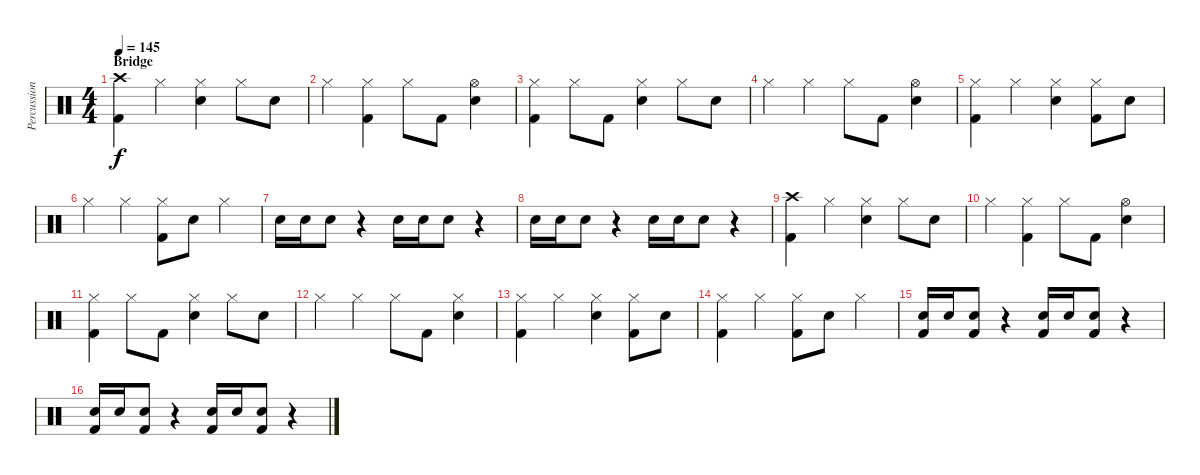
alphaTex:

\track ("Percussion" "Percussion") {instrument percussion}
\staff {score}
\articulation defaults
\ts (4 4)
\section ("" "Bridge")
\tempo 145
\clef neutral
\ks c
("Kick (hit) 2" "Crash high (hit)").4{dy f} "Hi-Hat (closed)".4 ("Electric Snare (hit)" "Hi-Hat (closed)").4 "Hi-Hat (closed)".8 "Electric Snare (hit)".8 |
"Hi-Hat (closed)".4 ("Kick (hit) 2" "Hi-Hat (closed)").4 "Hi-Hat (closed)".8 "Kick (hit) 2".8 ("Electric Snare (hit)" "Hi-Hat (open)").4 |
("Kick (hit) 2" "Hi-Hat (closed)").4 "Hi-Hat (closed)".8 "Kick (hit) 2".8 ("Electric Snare (hit)" "Hi-Hat (closed)").4 "Hi-Hat (closed)".8 "Electric Snare (hit)".8 |
"Hi-Hat (closed)".4 "Hi-Hat (closed)".4 "Hi-Hat (closed)".8 "Kick (hit) 2".8 ("Electric Snare (hit)" "Hi-Hat (open)").4 |
("Kick (hit) 2" "Hi-Hat (closed)").4 "Hi-Hat (closed)".4 ("Electric Snare (hit)" "Hi-Hat (closed)").4 ("Kick (hit) 2" "Hi-Hat (closed)").8 "Electric Snare (hit)".8 |
"Hi-Hat (closed)".4 "Hi-Hat (closed)".4 ("Kick (hit) 2" "Hi-Hat (closed)").8 "Electric Snare (hit)".8 "Hi-Hat (closed)".4 |
"Electric Snare (hit)".16 "Electric Snare (hit)".16 "Electric Snare (hit)".8 r.4 "Electric Snare (hit)".16 "Electric Snare (hit)".16 "Electric Snare (hit)".8 r.4 |
"Electric Snare (hit)".16 "Electric Snare (hit)".16 "Electric Snare (hit)".8 r.4 "Electric Snare (hit)".16 "Electric Snare (hit)".16 "Electric Snare (hit)".8 r.4 |
("Kick (hit) 2" "Crash high (hit)").4 "Hi-Hat (closed)".4 ("Electric Snare (hit)" "Hi-Hat (closed)").4 "Hi-Hat (closed)".8 "Electric Snare (hit)".8 |
"Hi-Hat (closed)".4 ("Kick (hit) 2" "Hi-Hat (closed)").4 "Hi-Hat (closed)".8 "Kick (hit) 2".8 ("Electric Snare (hit)" "Hi-Hat (open)").4 |
("Kick (hit) 2" "Hi-Hat (closed)").4 "Hi-Hat (closed)".8 "Kick (hit) 2".8 ("Electric Snare (hit)" "Hi-Hat (closed)").4 "Hi-Hat (closed)".8 "Electric Snare (hit)".8 |
"Hi-Hat (closed)".4 "Hi-Hat (closed)".4 "Hi-Hat (closed)".8 "Kick (hit) 2".8 ("Electric Snare (hit)" "Hi-Hat (closed)").4 |
("Kick (hit) 2" "Hi-Hat (closed)").4 "Hi-Hat (closed)".4 ("Electric Snare (hit)" "Hi-Hat (closed)").4 ("Kick (hit) 2" "Hi-Hat (closed)").8 "Electric Snare (hit)".8 |
("Kick (hit) 2" "Hi-Hat (closed)").4 "Hi-Hat (closed)".4 ("Kick (hit) 2" "Hi-Hat (closed)").8 "Electric Snare (hit)".8 "Hi-Hat (closed)".4 |
("Electric Snare (hit)" "Kick (hit) 2").16 "Electric Snare (hit)".16 ("Electric Snare (hit)" "Kick (hit) 2").8 r.4 ("Electric Snare (hit)" "Kick (hit) 2").16 "Electric Snare (hit)".16 ("Electric Snare (hit)" "Kick (hit) 2").8 r.4 |
("Electric Snare (hit)" "Kick (hit) 2").16 "Electric Snare (hit)".16 ("Electric Snare (hit)" "Kick (hit) 2").8 r.4 ("Electric Snare (hit)" "Kick (hit) 2").16 "Electric Snare (hit)".16 ("Electric Snare (hit)" "Kick (hit) 2").8 r.4
